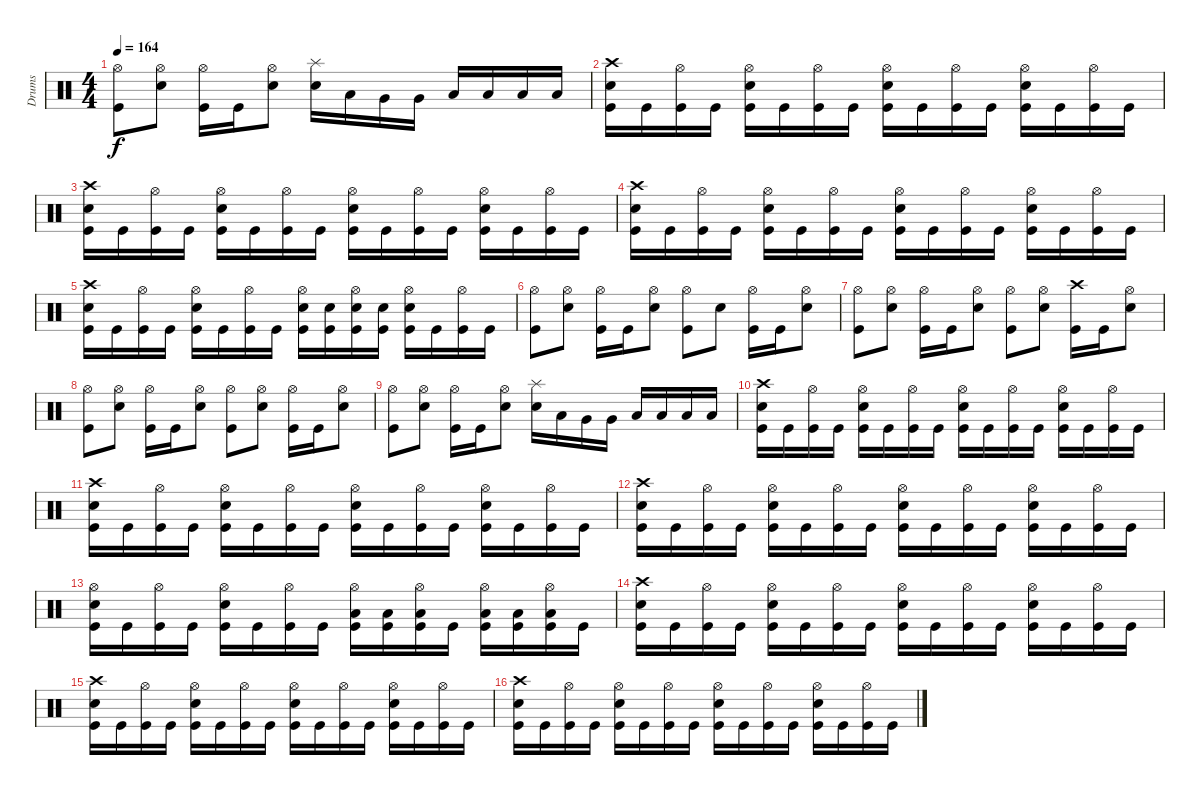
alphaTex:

\track ("Drums" "Drums") {instrument percussion}
\staff {score}
\articulation defaults
\ts (4 4)
\tempo 164
\clef neutral
\ks c
("Hi-Hat (open)" "Kick (hit)").8{dy f} ("Hi-Hat (open)" "Snare (hit) 2").8 ("Hi-Hat (open)" "Kick (hit)").16 "Kick (hit)".16 ("Hi-Hat (open)" "Snare (hit) 2").8 ("Splash (hit)" "Snare (hit) 2").16 "Low Tom (hit)".16 "Very Low Tom (hit)".16 "Very Low Tom (hit)".16 "Low Floor Tom (hit)".16 "Low Floor Tom (hit)".16 "Low Floor Tom (hit)".16 "Low Floor Tom (hit)".16 |
("Crash high (hit)" "Snare (hit) 2" "Kick (hit)").16 "Kick (hit)".16 ("Hi-Hat (open)" "Kick (hit)").16 "Kick (hit)".16 ("Hi-Hat (open)" "Snare (hit) 2" "Kick (hit)").16 "Kick (hit)".16 ("Hi-Hat (open)" "Kick (hit)").16 "Kick (hit)".16 ("Hi-Hat (open)" "Snare (hit) 2" "Kick (hit)").16 "Kick (hit)".16 ("Hi-Hat (open)" "Kick (hit)").16 "Kick (hit)".16 ("Hi-Hat (open)" "Snare (hit) 2" "Kick (hit)").16 "Kick (hit)".16 ("Hi-Hat (open)" "Kick (hit)").16 "Kick (hit)".16 |
("Crash high (hit)" "Snare (hit) 2" "Kick (hit)").16 "Kick (hit)".16 ("Hi-Hat (open)" "Kick (hit)").16 "Kick (hit)".16 ("Hi-Hat (open)" "Snare (hit) 2" "Kick (hit)").16 "Kick (hit)".16 ("Hi-Hat (open)" "Kick (hit)").16 "Kick (hit)".16 ("Hi-Hat (open)" "Snare (hit) 2" "Kick (hit)").16 "Kick (hit)".16 ("Hi-Hat (open)" "Kick (hit)").16 "Kick (hit)".16 ("Hi-Hat (open)" "Snare (hit) 2" "Kick (hit)").16 "Kick (hit)".16 ("Hi-Hat (open)" "Kick (hit)").16 "Kick (hit)".16 |
("Crash high (hit)" "Snare (hit) 2" "Kick (hit)").16 "Kick (hit)".16 ("Hi-Hat (open)" "Kick (hit)").16 "Kick (hit)".16 ("Hi-Hat (open)" "Snare (hit) 2" "Kick (hit)").16 "Kick (hit)".16 ("Hi-Hat (open)" "Kick (hit)").16 "Kick (hit)".16 ("Hi-Hat (open)" "Snare (hit) 2" "Kick (hit)").16 "Kick (hit)".16 ("Hi-Hat (open)" "Kick (hit)").16 "Kick (hit)".16 ("Hi-Hat (open)" "Snare (hit) 2" "Kick (hit)").16 "Kick (hit)".16 ("Hi-Hat (open)" "Kick (hit)").16 "Kick (hit)".16 |
("Crash high (hit)" "Snare (hit) 2" "Kick (hit)").16 "Kick (hit)".16 ("Hi-Hat (open)" "Kick (hit)").16 "Kick (hit)".16 ("Hi-Hat (open)" "Snare (hit) 2" "Kick (hit)").16 "Kick (hit)".16 ("Hi-Hat (open)" "Kick (hit)").16 "Kick (hit)".16 ("Hi-Hat (open)" "Snare (hit) 2" "Kick (hit)").16 ("Snare (hit) 2" "Kick (hit)").16 ("Hi-Hat (open)" "Snare (hit) 2" "Kick (hit)").16 ("Snare (hit) 2" "Kick (hit)").16 ("Hi-Hat (open)" "Snare (hit) 2" "Kick (hit)").16 "Kick (hit)".16 ("Hi-Hat (open)" "Kick (hit)").16 "Kick (hit)".16 |
("Hi-Hat (open)" "Kick (hit)").8 ("Hi-Hat (open)" "Snare (hit) 2").8 ("Hi-Hat (open)" "Kick (hit)").16 "Kick (hit)".16 ("Hi-Hat (open)" "Snare (hit) 2").8 ("Hi-Hat (open)" "Kick (hit)").8 "Snare (hit) 2".8 ("Hi-Hat (open)" "Kick (hit)").16 "Kick (hit)".16 ("Hi-Hat (open)" "Snare (hit) 2").8 |
("Hi-Hat (open)" "Kick (hit)").8 ("Hi-Hat (open)" "Snare (hit) 2").8 ("Hi-Hat (open)" "Kick (hit)").16 "Kick (hit)".16 ("Hi-Hat (open)" "Snare (hit) 2").8 ("Hi-Hat (open)" "Kick (hit)").8 ("Hi-Hat (open)" "Snare (hit) 2").8 ("Crash high (hit)" "Kick (hit)").16 "Kick (hit)".16 ("Hi-Hat (open)" "Snare (hit) 2").8 |
("Hi-Hat (open)" "Kick (hit)").8 ("Hi-Hat (open)" "Snare (hit) 2").8 ("Hi-Hat (open)" "Kick (hit)").16 "Kick (hit)".16 ("Hi-Hat (open)" "Snare (hit) 2").8 ("Hi-Hat (open)" "Kick (hit)").8 ("Hi-Hat (open)" "Snare (hit) 2").8 ("Hi-Hat (open)" "Kick (hit)").16 "Kick (hit)".16 ("Hi-Hat (open)" "Snare (hit) 2").8 |
("Hi-Hat (open)" "Kick (hit)").8 ("Hi-Hat (open)" "Snare (hit) 2").8 ("Hi-Hat (open)" "Kick (hit)").16 "Kick (hit)".16 ("Hi-Hat (open)" "Snare (hit) 2").8 ("Splash (hit)" "Snare (hit) 2").16 "Low Tom (hit)".16 "Very Low Tom (hit)".16 "Very Low Tom (hit)".16 "Low Floor Tom (hit)".16 "Low Floor Tom (hit)".16 "Low Floor Tom (hit)".16 "Low Floor Tom (hit)".16 |
("Crash high (hit)" "Snare (hit) 2" "Kick (hit)").16 "Kick (hit)".16 ("Hi-Hat (open)" "Kick (hit)").16 "Kick (hit)".16 ("Hi-Hat (open)" "Snare (hit) 2" "Kick (hit)").16 "Kick (hit)".16 ("Hi-Hat (open)" "Kick (hit)").16 "Kick (hit)".16 ("Hi-Hat (open)" "Snare (hit) 2" "Kick (hit)").16 "Kick (hit)".16 ("Hi-Hat (open)" "Kick (hit)").16 "Kick (hit)".16 ("Hi-Hat (open)" "Snare (hit) 2" "Kick (hit)").16 "Kick (hit)".16 ("Hi-Hat (open)" "Kick (hit)").16 "Kick (hit)".16 |
("Crash high (hit)" "Snare (hit) 2" "Kick (hit)").16 "Kick (hit)".16 ("Hi-Hat (open)" "Kick (hit)").16 "Kick (hit)".16 ("Hi-Hat (open)" "Snare (hit) 2" "Kick (hit)").16 "Kick (hit)".16 ("Hi-Hat (open)" "Kick (hit)").16 "Kick (hit)".16 ("Hi-Hat (open)" "Snare (hit) 2" "Kick (hit)").16 "Kick (hit)".16 ("Hi-Hat (open)" "Kick (hit)").16 "Kick (hit)".16 ("Hi-Hat (open)" "Snare (hit) 2" "Kick (hit)").16 "Kick (hit)".16 ("Hi-Hat (open)" "Kick (hit)").16 "Kick (hit)".16 |
("Crash high (hit)" "Snare (hit) 2" "Kick (hit)").16 "Kick (hit)".16 ("Hi-Hat (open)" "Kick (hit)").16 "Kick (hit)".16 ("Hi-Hat (open)" "Snare (hit) 2" "Kick (hit)").16 "Kick (hit)".16 ("Hi-Hat (open)" "Kick (hit)").16 "Kick (hit)".16 ("Hi-Hat (open)" "Snare (hit) 2" "Kick (hit)").16 "Kick (hit)".16 ("Hi-Hat (open)" "Kick (hit)").16 "Kick (hit)".16 ("Hi-Hat (open)" "Snare (hit) 2" "Kick (hit)").16 "Kick (hit)".16 ("Hi-Hat (open)" "Kick (hit)").16 "Kick (hit)".16 |
("Hi-Hat (open)" "Snare (hit) 2" "Kick (hit)").16 "Kick (hit)".16 ("Hi-Hat (open)" "Kick (hit)").16 "Kick (hit)".16 ("Hi-Hat (open)" "Snare (hit) 2" "Kick (hit)").16 "Kick (hit)".16 ("Hi-Hat (open)" "Kick (hit)").16 "Kick (hit)".16 ("Hi-Hat (open)" "Low Floor Tom (hit)" "Kick (hit)").16 ("Low Floor Tom (hit)" "Kick (hit)").16 ("Hi-Hat (open)" "Low Floor Tom (hit)" "Kick (hit)").16 "Kick (hit)".16 ("Hi-Hat (open)" "Low Floor Tom (hit)" "Kick (hit)").16 ("Low Floor Tom (hit)" "Kick (hit)").16 ("Hi-Hat (open)" "Low Floor Tom (hit)" "Kick (hit)").16 "Kick (hit)".16 |
("Crash high (hit)" "Snare (hit) 2" "Kick (hit)").16 "Kick (hit)".16 ("Hi-Hat (open)" "Kick (hit)").16 "Kick (hit)".16 ("Hi-Hat (open)" "Snare (hit) 2" "Kick (hit)").16 "Kick (hit)".16 ("Hi-Hat (open)" "Kick (hit)").16 "Kick (hit)".16 ("Hi-Hat (open)" "Snare (hit) 2" "Kick (hit)").16 "Kick (hit)".16 ("Hi-Hat (open)" "Kick (hit)").16 "Kick (hit)".16 ("Hi-Hat (open)" "Snare (hit) 2" "Kick (hit)").16 "Kick (hit)".16 ("Hi-Hat (open)" "Kick (hit)").16 "Kick (hit)".16 |
("Crash high (hit)" "Snare (hit) 2" "Kick (hit)").16 "Kick (hit)".16 ("Hi-Hat (open)" "Kick (hit)").16 "Kick (hit)".16 ("Hi-Hat (open)" "Snare (hit) 2" "Kick (hit)").16 "Kick (hit)".16 ("Hi-Hat (open)" "Kick (hit)").16 "Kick (hit)".16 ("Hi-Hat (open)" "Snare (hit) 2" "Kick (hit)").16 "Kick (hit)".16 ("Hi-Hat (open)" "Kick (hit)").16 "Kick (hit)".16 ("Hi-Hat (open)" "Snare (hit) 2" "Kick (hit)").16 "Kick (hit)".16 ("Hi-Hat (open)" "Kick (hit)").16 "Kick (hit)".16 |
("Crash high (hit)" "Snare (hit) 2" "Kick (hit)").16 "Kick (hit)".16 ("Hi-Hat (open)" "Kick (hit)").16 "Kick (hit)".16 ("Hi-Hat (open)" "Snare (hit) 2" "Kick (hit)").16 "Kick (hit)".16 ("Hi-Hat (open)" "Kick (hit)").16 "Kick (hit)".16 ("Hi-Hat (open)" "Snare (hit) 2" "Kick (hit)").16 "Kick (hit)".16 ("Hi-Hat (open)" "Kick (hit)").16 "Kick (hit)".16 ("Hi-Hat (open)" "Snare (hit) 2" "Kick (hit)").16 "Kick (hit)".16 ("Hi-Hat (open)" "Kick (hit)").16 "Kick (hit)".16
